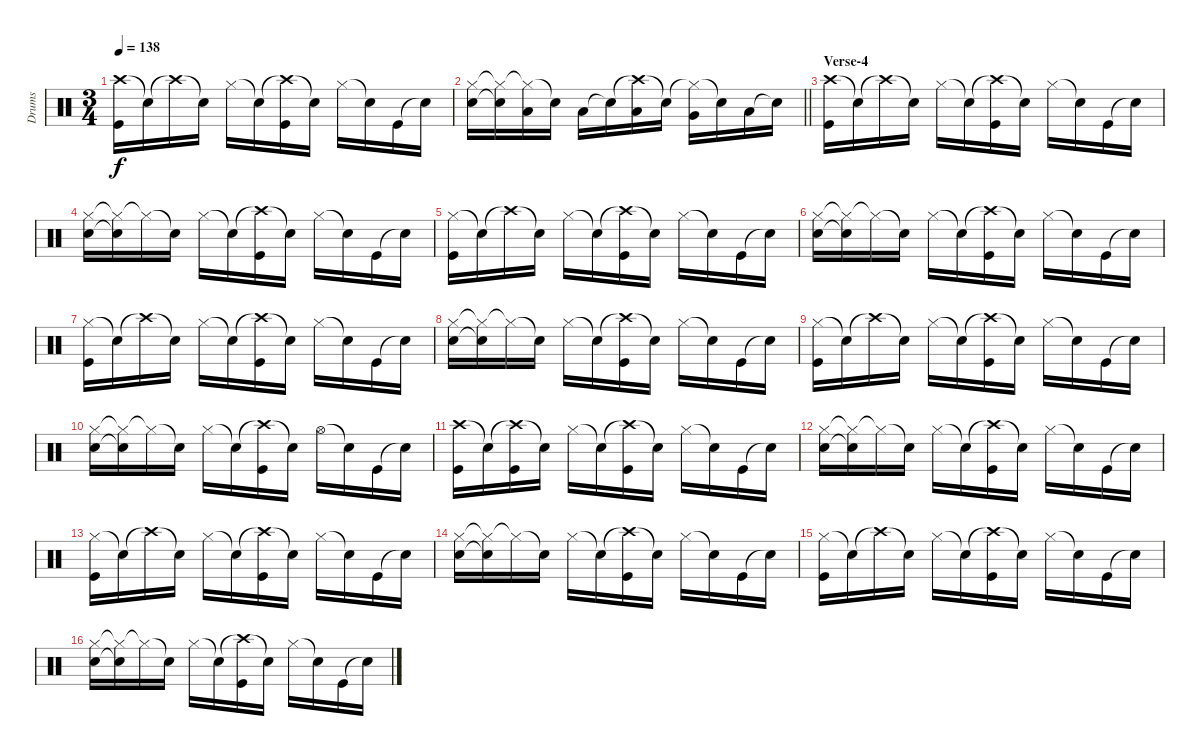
\track ("Drums" "Drums") {instrument percussion}
\staff {score}
\articulation defaults
\ts (3 4)
\tempo 138
\clef neutral
\ks c
("Crash high (hit)" "Kick (hit)").16{dy f} "Snare (hit)"{t}.16 "Crash high (hit)"{t}.16 "Snare (hit)"{t}.16 "Hi-Hat (closed)".16 "Snare (hit)"{t}.16 ("Crash high (hit)"{t} "Kick (hit)").16 "Snare (hit)"{t}.16 "Hi-Hat (closed)".16 "Snare (hit)"{t}.16 "Kick (hit)".16 "Snare (hit)"{t}.16 |
\barLineRight lightlight
("Hi-Hat (closed)" "Electric Snare (hit)").16 ("Hi-Hat (closed)"{t} "Snare (hit)"{t}).16 ("Hi-Hat (closed)"{t} "Low Floor Tom (hit)").16 "Snare (hit)"{t}.16 "Low Tom (hit)".16 "Snare (hit)"{t}.16 ("Crash high (hit)"{t} "Low Floor Tom (hit)").16 "Snare (hit)"{t}.16 ("Hi-Hat (closed)"{t} "Very Low Tom (hit)").16 "Snare (hit)"{t}.16 "Low Floor Tom (hit)".16 "Snare (hit)"{t}.16 |
\section ("" "Verse-4")
("Crash high (hit)" "Kick (hit)").16 "Snare (hit)"{t}.16 "Crash high (hit)"{t}.16 "Snare (hit)"{t}.16 "Hi-Hat (closed)".16 "Snare (hit)"{t}.16 ("Crash high (hit)"{t} "Kick (hit)").16 "Snare (hit)"{t}.16 "Hi-Hat (closed)".16 "Snare (hit)"{t}.16 "Kick (hit)".16 "Snare (hit)"{t}.16 |
("Hi-Hat (closed)" "Electric Snare (hit)").16 ("Hi-Hat (closed)"{t} "Snare (hit)"{t}).16 "Hi-Hat (closed)"{t}.16 "Snare (hit)"{t}.16 "Hi-Hat (closed)".16 "Snare (hit)"{t}.16 ("Crash high (hit)"{t} "Kick (hit)").16 "Snare (hit)"{t}.16 "Hi-Hat (closed)".16 "Snare (hit)"{t}.16 "Kick (hit)".16 "Snare (hit)"{t}.16 |
("Hi-Hat (closed)" "Kick (hit)").16 "Snare (hit)"{t}.16 "Crash high (hit)"{t}.16 "Snare (hit)"{t}.16 "Hi-Hat (closed)".16 "Snare (hit)"{t}.16 ("Crash high (hit)"{t} "Kick (hit)").16 "Snare (hit)"{t}.16 "Hi-Hat (closed)".16 "Snare (hit)"{t}.16 "Kick (hit)".16 "Snare (hit)"{t}.16 |
("Hi-Hat (closed)" "Electric Snare (hit)").16 ("Hi-Hat (closed)"{t} "Snare (hit)"{t}).16 "Hi-Hat (closed)"{t}.16 "Snare (hit)"{t}.16 "Hi-Hat (closed)".16 "Snare (hit)"{t}.16 ("Crash high (hit)"{t} "Kick (hit)").16 "Snare (hit)"{t}.16 "Hi-Hat (closed)".16 "Snare (hit)"{t}.16 "Kick (hit)".16 "Snare (hit)"{t}.16 |
("Hi-Hat (closed)" "Kick (hit)").16 "Snare (hit)"{t}.16 "Crash high (hit)"{t}.16 "Snare (hit)"{t}.16 "Hi-Hat (closed)".16 "Snare (hit)"{t}.16 ("Crash high (hit)"{t} "Kick (hit)").16 "Snare (hit)"{t}.16 "Hi-Hat (closed)".16 "Snare (hit)"{t}.16 "Kick (hit)".16 "Snare (hit)"{t}.16 |
("Hi-Hat (closed)" "Electric Snare (hit)").16 ("Hi-Hat (closed)"{t} "Snare (hit)"{t}).16 "Hi-Hat (closed)"{t}.16 "Snare (hit)"{t}.16 "Hi-Hat (closed)".16 "Snare (hit)"{t}.16 ("Crash high (hit)"{t} "Kick (hit)").16 "Snare (hit)"{t}.16 "Hi-Hat (closed)".16 "Snare (hit)"{t}.16 "Kick (hit)".16 "Snare (hit)"{t}.16 |
("Hi-Hat (closed)" "Kick (hit)").16 "Snare (hit)"{t}.16 "Crash high (hit)"{t}.16 "Snare (hit)"{t}.16 "Hi-Hat (closed)".16 "Snare (hit)"{t}.16 ("Crash high (hit)"{t} "Kick (hit)").16 "Snare (hit)"{t}.16 "Hi-Hat (closed)".16 "Snare (hit)"{t}.16 "Kick (hit)".16 "Snare (hit)"{t}.16 |
("Hi-Hat (closed)" "Electric Snare (hit)").16 ("Hi-Hat (closed)"{t} "Snare (hit)"{t}).16 "Hi-Hat (closed)"{t}.16 "Snare (hit)"{t}.16 "Hi-Hat (closed)".16 "Snare (hit)"{t}.16 ("Crash high (hit)"{t} "Kick (hit)").16 "Snare (hit)"{t}.16 "Hi-Hat (open)".16 "Snare (hit)"{t}.16 "Kick (hit)".16 "Snare (hit)"{t}.16 |
("Crash high (hit)" "Kick (hit)").16 "Snare (hit)"{t}.16 ("Crash high (hit)"{t} "Kick (hit)").16 "Snare (hit)"{t}.16 "Hi-Hat (closed)".16 "Snare (hit)"{t}.16 ("Crash high (hit)"{t} "Kick (hit)").16 "Snare (hit)"{t}.16 "Hi-Hat (closed)".16 "Snare (hit)"{t}.16 "Kick (hit)".16 "Snare (hit)"{t}.16 |
("Hi-Hat (closed)" "Electric Snare (hit)").16 ("Hi-Hat (closed)"{t} "Snare (hit)"{t}).16 "Hi-Hat (closed)"{t}.16 "Snare (hit)"{t}.16 "Hi-Hat (closed)".16 "Snare (hit)"{t}.16 ("Crash high (hit)"{t} "Kick (hit)").16 "Snare (hit)"{t}.16 "Hi-Hat (closed)".16 "Snare (hit)"{t}.16 "Kick (hit)".16 "Snare (hit)"{t}.16 |
("Hi-Hat (closed)" "Kick (hit)").16 "Snare (hit)"{t}.16 "Crash high (hit)"{t}.16 "Snare (hit)"{t}.16 "Hi-Hat (closed)".16 "Snare (hit)"{t}.16 ("Crash high (hit)"{t} "Kick (hit)").16 "Snare (hit)"{t}.16 "Hi-Hat (closed)".16 "Snare (hit)"{t}.16 "Kick (hit)".16 "Snare (hit)"{t}.16 |
("Hi-Hat (closed)" "Electric Snare (hit)").16 ("Hi-Hat (closed)"{t} "Snare (hit)"{t}).16 "Hi-Hat (closed)"{t}.16 "Snare (hit)"{t}.16 "Hi-Hat (closed)".16 "Snare (hit)"{t}.16 ("Crash high (hit)"{t} "Kick (hit)").16 "Snare (hit)"{t}.16 "Hi-Hat (closed)".16 "Snare (hit)"{t}.16 "Kick (hit)".16 "Snare (hit)"{t}.16 |
("Hi-Hat (closed)" "Kick (hit)").16 "Snare (hit)"{t}.16 "Crash high (hit)"{t}.16 "Snare (hit)"{t}.16 "Hi-Hat (closed)".16 "Snare (hit)"{t}.16 ("Crash high (hit)"{t} "Kick (hit)").16 "Snare (hit)"{t}.16 "Hi-Hat (closed)".16 "Snare (hit)"{t}.16 "Kick (hit)".16 "Snare (hit)"{t}.16 |
("Hi-Hat (closed)" "Electric Snare (hit)").16 ("Hi-Hat (closed)"{t} "Snare (hit)"{t}).16 "Hi-Hat (closed)"{t}.16 "Snare (hit)"{t}.16 "Hi-Hat (closed)".16 "Snare (hit)"{t}.16 ("Crash high (hit)"{t} "Kick (hit)").16 "Snare (hit)"{t}.16 "Hi-Hat (closed)".16 "Snare (hit)"{t}.16 "Kick (hit)".16 "Snare (hit)"{t}.16
